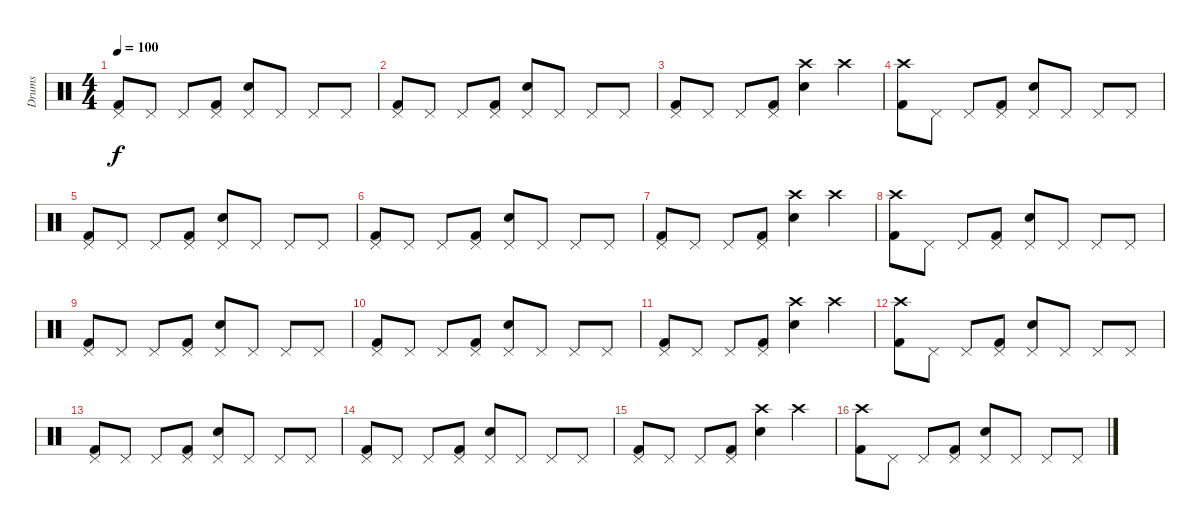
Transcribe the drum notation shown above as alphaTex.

\track ("Drums" "Drums") {instrument percussion}
\staff {score}
\articulation defaults
\ts (4 4)
\tempo 100
\clef neutral
\ks c
("Pedal Hi-Hat (hit)" "Kick (hit) 2").8{dy f} "Pedal Hi-Hat (hit)".8 "Pedal Hi-Hat (hit)".8 ("Pedal Hi-Hat (hit)" "Kick (hit) 2").8 ("Pedal Hi-Hat (hit)" "Snare (hit) 2").8 "Pedal Hi-Hat (hit)".8 "Pedal Hi-Hat (hit)".8 "Pedal Hi-Hat (hit)".8 |
("Pedal Hi-Hat (hit)" "Kick (hit) 2").8 "Pedal Hi-Hat (hit)".8 "Pedal Hi-Hat (hit)".8 ("Pedal Hi-Hat (hit)" "Kick (hit) 2").8 ("Pedal Hi-Hat (hit)" "Snare (hit) 2").8 "Pedal Hi-Hat (hit)".8 "Pedal Hi-Hat (hit)".8 "Pedal Hi-Hat (hit)".8 |
("Pedal Hi-Hat (hit)" "Kick (hit) 2").8 "Pedal Hi-Hat (hit)".8 "Pedal Hi-Hat (hit)".8 ("Pedal Hi-Hat (hit)" "Kick (hit) 2").8 ("Crash high (hit)" "Snare (hit) 2").4 "Crash high (hit)".4 |
("Crash high (hit)" "Kick (hit) 2").8 "Pedal Hi-Hat (hit)".8 "Pedal Hi-Hat (hit)".8 ("Pedal Hi-Hat (hit)" "Kick (hit) 2").8 ("Pedal Hi-Hat (hit)" "Snare (hit) 2").8 "Pedal Hi-Hat (hit)".8 "Pedal Hi-Hat (hit)".8 "Pedal Hi-Hat (hit)".8 |
("Pedal Hi-Hat (hit)" "Kick (hit) 2").8 "Pedal Hi-Hat (hit)".8 "Pedal Hi-Hat (hit)".8 ("Pedal Hi-Hat (hit)" "Kick (hit) 2").8 ("Pedal Hi-Hat (hit)" "Snare (hit) 2").8 "Pedal Hi-Hat (hit)".8 "Pedal Hi-Hat (hit)".8 "Pedal Hi-Hat (hit)".8 |
("Pedal Hi-Hat (hit)" "Kick (hit) 2").8 "Pedal Hi-Hat (hit)".8 "Pedal Hi-Hat (hit)".8 ("Pedal Hi-Hat (hit)" "Kick (hit) 2").8 ("Pedal Hi-Hat (hit)" "Snare (hit) 2").8 "Pedal Hi-Hat (hit)".8 "Pedal Hi-Hat (hit)".8 "Pedal Hi-Hat (hit)".8 |
("Pedal Hi-Hat (hit)" "Kick (hit) 2").8 "Pedal Hi-Hat (hit)".8 "Pedal Hi-Hat (hit)".8 ("Pedal Hi-Hat (hit)" "Kick (hit) 2").8 ("Crash high (hit)" "Snare (hit) 2").4 "Crash high (hit)".4 |
("Crash high (hit)" "Kick (hit) 2").8 "Pedal Hi-Hat (hit)".8 "Pedal Hi-Hat (hit)".8 ("Pedal Hi-Hat (hit)" "Kick (hit) 2").8 ("Pedal Hi-Hat (hit)" "Snare (hit) 2").8 "Pedal Hi-Hat (hit)".8 "Pedal Hi-Hat (hit)".8 "Pedal Hi-Hat (hit)".8 |
("Pedal Hi-Hat (hit)" "Kick (hit) 2").8 "Pedal Hi-Hat (hit)".8 "Pedal Hi-Hat (hit)".8 ("Pedal Hi-Hat (hit)" "Kick (hit) 2").8 ("Pedal Hi-Hat (hit)" "Snare (hit) 2").8 "Pedal Hi-Hat (hit)".8 "Pedal Hi-Hat (hit)".8 "Pedal Hi-Hat (hit)".8 |
("Pedal Hi-Hat (hit)" "Kick (hit) 2").8 "Pedal Hi-Hat (hit)".8 "Pedal Hi-Hat (hit)".8 ("Pedal Hi-Hat (hit)" "Kick (hit) 2").8 ("Pedal Hi-Hat (hit)" "Snare (hit) 2").8 "Pedal Hi-Hat (hit)".8 "Pedal Hi-Hat (hit)".8 "Pedal Hi-Hat (hit)".8 |
("Pedal Hi-Hat (hit)" "Kick (hit) 2").8 "Pedal Hi-Hat (hit)".8 "Pedal Hi-Hat (hit)".8 ("Pedal Hi-Hat (hit)" "Kick (hit) 2").8 ("Crash high (hit)" "Snare (hit) 2").4 "Crash high (hit)".4 |
("Crash high (hit)" "Kick (hit) 2").8 "Pedal Hi-Hat (hit)".8 "Pedal Hi-Hat (hit)".8 ("Pedal Hi-Hat (hit)" "Kick (hit) 2").8 ("Pedal Hi-Hat (hit)" "Snare (hit) 2").8 "Pedal Hi-Hat (hit)".8 "Pedal Hi-Hat (hit)".8 "Pedal Hi-Hat (hit)".8 |
("Pedal Hi-Hat (hit)" "Kick (hit) 2").8 "Pedal Hi-Hat (hit)".8 "Pedal Hi-Hat (hit)".8 ("Pedal Hi-Hat (hit)" "Kick (hit) 2").8 ("Pedal Hi-Hat (hit)" "Snare (hit) 2").8 "Pedal Hi-Hat (hit)".8 "Pedal Hi-Hat (hit)".8 "Pedal Hi-Hat (hit)".8 |
("Pedal Hi-Hat (hit)" "Kick (hit) 2").8 "Pedal Hi-Hat (hit)".8 "Pedal Hi-Hat (hit)".8 ("Pedal Hi-Hat (hit)" "Kick (hit) 2").8 ("Pedal Hi-Hat (hit)" "Snare (hit) 2").8 "Pedal Hi-Hat (hit)".8 "Pedal Hi-Hat (hit)".8 "Pedal Hi-Hat (hit)".8 |
("Pedal Hi-Hat (hit)" "Kick (hit) 2").8 "Pedal Hi-Hat (hit)".8 "Pedal Hi-Hat (hit)".8 ("Pedal Hi-Hat (hit)" "Kick (hit) 2").8 ("Crash high (hit)" "Snare (hit) 2").4 "Crash high (hit)".4 |
("Crash high (hit)" "Kick (hit) 2").8 "Pedal Hi-Hat (hit)".8 "Pedal Hi-Hat (hit)".8 ("Pedal Hi-Hat (hit)" "Kick (hit) 2").8 ("Pedal Hi-Hat (hit)" "Snare (hit) 2").8 "Pedal Hi-Hat (hit)".8 "Pedal Hi-Hat (hit)".8 "Pedal Hi-Hat (hit)".8
